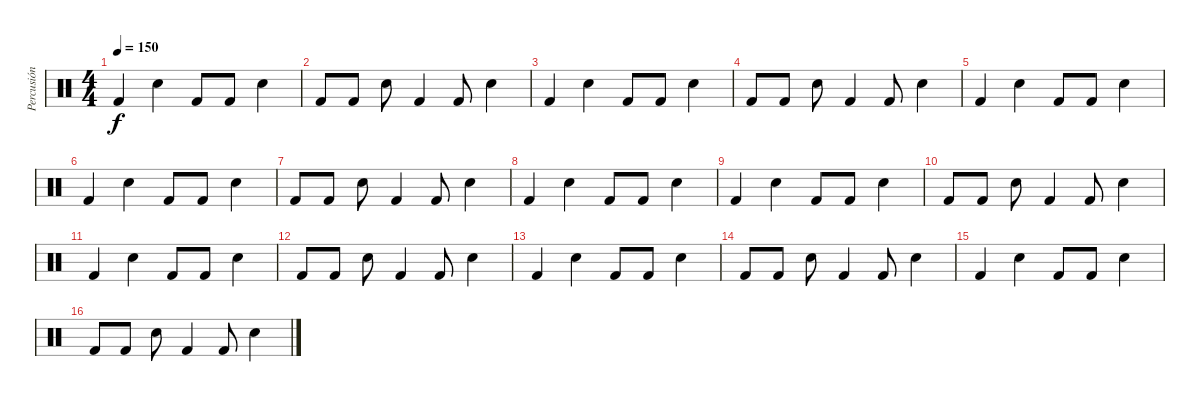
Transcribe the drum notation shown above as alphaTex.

\track ("Percusión" "Percusión") {instrument percussion}
\staff {score}
\articulation defaults
\ts (4 4)
\tempo 150
\clef neutral
\ks c "Kick (hit) 2".4{dy f} "Snare (hit) 2".4 "Kick (hit) 2".8 "Kick (hit) 2".8 "Snare (hit) 2".4
|
"Kick (hit) 2".8 "Kick (hit) 2".8 "Snare (hit) 2".8 "Kick (hit) 2".4 "Kick (hit) 2".8 "Snare (hit) 2".4 |
"Kick (hit) 2".4 "Snare (hit) 2".4 "Kick (hit) 2".8 "Kick (hit) 2".8 "Snare (hit) 2".4 |
"Kick (hit) 2".8 "Kick (hit) 2".8 "Snare (hit) 2".8 "Kick (hit) 2".4 "Kick (hit) 2".8 "Snare (hit) 2".4 |
"Kick (hit) 2".4 "Snare (hit) 2".4 "Kick (hit) 2".8 "Kick (hit) 2".8 "Snare (hit) 2".4 |
"Kick (hit) 2".4 "Snare (hit) 2".4 "Kick (hit) 2".8 "Kick (hit) 2".8 "Snare (hit) 2".4 |
"Kick (hit) 2".8 "Kick (hit) 2".8 "Snare (hit) 2".8 "Kick (hit) 2".4 "Kick (hit) 2".8 "Snare (hit) 2".4 |
"Kick (hit) 2".4 "Snare (hit) 2".4 "Kick (hit) 2".8 "Kick (hit) 2".8 "Snare (hit) 2".4 |
"Kick (hit) 2".4 "Snare (hit) 2".4 "Kick (hit) 2".8 "Kick (hit) 2".8 "Snare (hit) 2".4 |
"Kick (hit) 2".8 "Kick (hit) 2".8 "Snare (hit) 2".8 "Kick (hit) 2".4 "Kick (hit) 2".8 "Snare (hit) 2".4 |
"Kick (hit) 2".4 "Snare (hit) 2".4 "Kick (hit) 2".8 "Kick (hit) 2".8 "Snare (hit) 2".4 |
"Kick (hit) 2".8 "Kick (hit) 2".8 "Snare (hit) 2".8 "Kick (hit) 2".4 "Kick (hit) 2".8 "Snare (hit) 2".4 |
"Kick (hit) 2".4 "Snare (hit) 2".4 "Kick (hit) 2".8 "Kick (hit) 2".8 "Snare (hit) 2".4 |
"Kick (hit) 2".8 "Kick (hit) 2".8 "Snare (hit) 2".8 "Kick (hit) 2".4 "Kick (hit) 2".8 "Snare (hit) 2".4 |
"Kick (hit) 2".4 "Snare (hit) 2".4 "Kick (hit) 2".8 "Kick (hit) 2".8 "Snare (hit) 2".4 |
"Kick (hit) 2".8 "Kick (hit) 2".8 "Snare (hit) 2".8 "Kick (hit) 2".4 "Kick (hit) 2".8 "Snare (hit) 2".4
